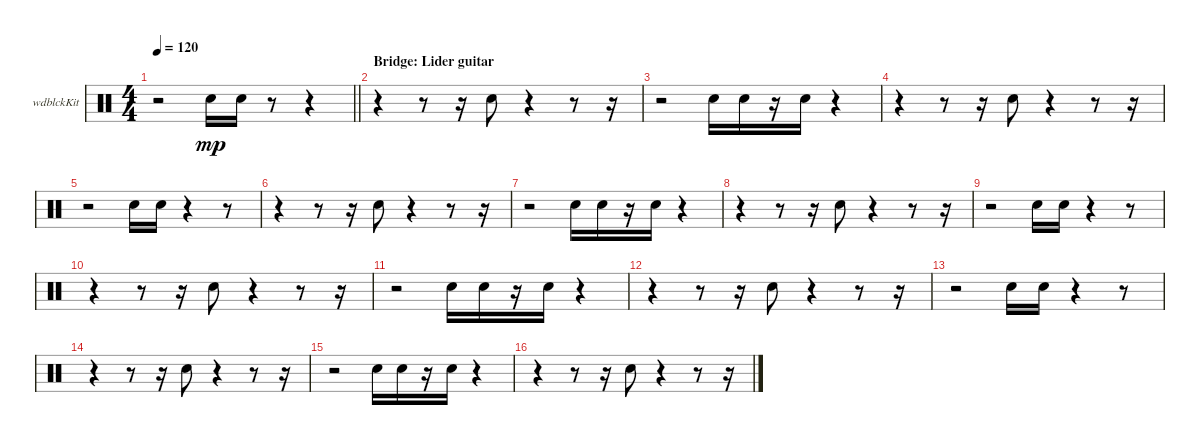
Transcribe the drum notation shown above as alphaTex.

\bracketExtendMode groupsimilarinstruments
\firstSystemTrackNameOrientation horizontal
\otherSystemsTrackNameOrientation horizontal
\track ("Woodblock" "wdblckKit") {instrument percussion}
\staff {score}
\articulation defaults
\ts (4 4)
\tempo 120
\clef neutral
\barLineRight lightlight
\ks c
r.2{dy mp} "Snare (hit) 2".16 "Snare (hit) 2".16 r.8 r.4 |
\section ("" "Bridge: Lider guitar")
r.4 r.8 r.16 "Snare (hit) 2".8 r.4 r.8 r.16 |
r.2 "Snare (hit) 2".16 "Snare (hit) 2".16 r.16 "Snare (hit) 2".16 r.4 |
r.4 r.8 r.16 "Snare (hit) 2".8 r.4 r.8 r.16 |
r.2 "Snare (hit) 2".16 "Snare (hit) 2".16 r.4 r.8 |
r.4 r.8 r.16 "Snare (hit) 2".8 r.4 r.8 r.16 |
r.2 "Snare (hit) 2".16 "Snare (hit) 2".16 r.16 "Snare (hit) 2".16 r.4 |
r.4 r.8 r.16 "Snare (hit) 2".8 r.4 r.8 r.16 |
r.2 "Snare (hit) 2".16 "Snare (hit) 2".16 r.4 r.8 |
r.4 r.8 r.16 "Snare (hit) 2".8 r.4 r.8 r.16 |
r.2 "Snare (hit) 2".16 "Snare (hit) 2".16 r.16 "Snare (hit) 2".16 r.4 |
r.4 r.8 r.16 "Snare (hit) 2".8 r.4 r.8 r.16 |
r.2 "Snare (hit) 2".16 "Snare (hit) 2".16 r.4 r.8 |
r.4 r.8 r.16 "Snare (hit) 2".8 r.4 r.8 r.16 |
r.2 "Snare (hit) 2".16 "Snare (hit) 2".16 r.16 "Snare (hit) 2".16 r.4 |
r.4 r.8 r.16 "Snare (hit) 2".8 r.4 r.8 r.16
